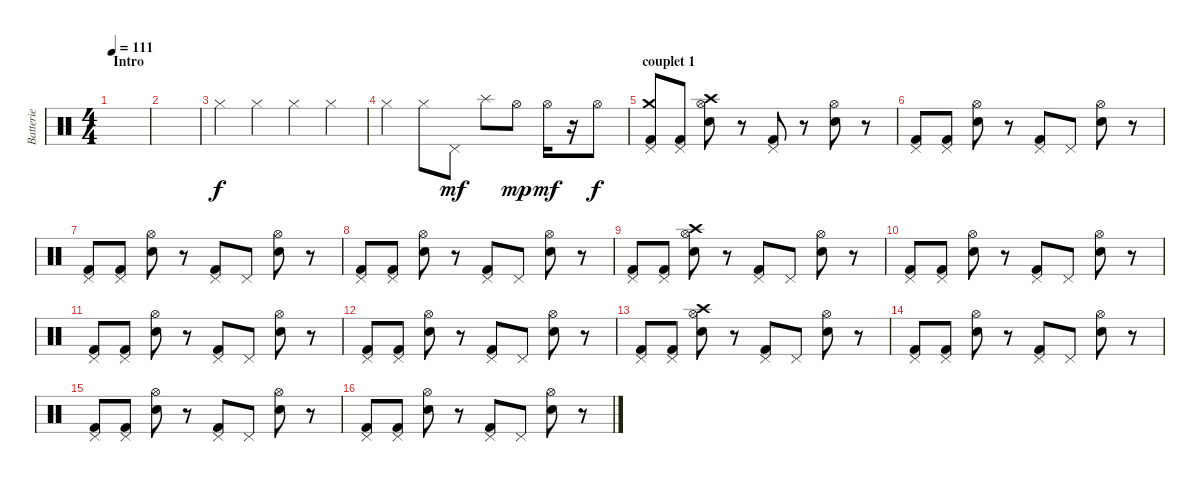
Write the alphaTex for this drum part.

\track ("Batterie" "Batterie") {instrument percussion}
\staff {score}
\articulation defaults
\ts (4 4)
\section ("" "Intro")
\tempo 111
\clef neutral
\ks c
|
|
"Hi-Hat (closed)".4{balance 0} "Hi-Hat (closed)".4 "Hi-Hat (closed)".4 "Hi-Hat (closed)".4 |
"Hi-Hat (closed)".4 "Hi-Hat (closed)".8 "Pedal Hi-Hat (hit)".8{dy mf balance 8} "Splash (hit)".8 "Hi-Hat (open)".8{dy mp} "Hi-Hat (open)".16{dy mf} r.16 "Hi-Hat (open)".8{dy f} |
\section ("" "couplet 1")
("Pedal Hi-Hat (hit)" "Crash medium (hit)" "Kick (hit) 2").8 ("Pedal Hi-Hat (hit)" "Kick (hit) 2").8 ("Hi-Hat (open)" "Crash high (hit)" "Electric Snare (hit)").8 r.8 ("Pedal Hi-Hat (hit)" "Kick (hit) 2").8 r.8 ("Hi-Hat (open)" "Electric Snare (hit)").8 r.8 |
("Pedal Hi-Hat (hit)" "Kick (hit) 2").8 ("Pedal Hi-Hat (hit)" "Kick (hit) 2").8 ("Hi-Hat (open)" "Electric Snare (hit)").8 r.8 ("Pedal Hi-Hat (hit)" "Kick (hit) 2").8 "Pedal Hi-Hat (hit)".8 ("Hi-Hat (open)" "Electric Snare (hit)").8 r.8 |
("Pedal Hi-Hat (hit)" "Kick (hit) 2").8 ("Pedal Hi-Hat (hit)" "Kick (hit) 2").8 ("Hi-Hat (open)" "Electric Snare (hit)").8 r.8 ("Pedal Hi-Hat (hit)" "Kick (hit) 2").8 "Pedal Hi-Hat (hit)".8 ("Hi-Hat (open)" "Electric Snare (hit)").8 r.8 |
("Pedal Hi-Hat (hit)" "Kick (hit) 2").8 ("Pedal Hi-Hat (hit)" "Kick (hit) 2").8 ("Hi-Hat (open)" "Electric Snare (hit)").8 r.8 ("Pedal Hi-Hat (hit)" "Kick (hit) 2").8 "Pedal Hi-Hat (hit)".8 ("Hi-Hat (open)" "Electric Snare (hit)").8 r.8 |
("Pedal Hi-Hat (hit)" "Kick (hit) 2").8 ("Pedal Hi-Hat (hit)" "Kick (hit) 2").8 ("Hi-Hat (open)" "Crash high (hit)" "Electric Snare (hit)").8 r.8 ("Pedal Hi-Hat (hit)" "Kick (hit) 2").8 "Pedal Hi-Hat (hit)".8 ("Hi-Hat (open)" "Electric Snare (hit)").8 r.8 |
("Pedal Hi-Hat (hit)" "Kick (hit) 2").8 ("Pedal Hi-Hat (hit)" "Kick (hit) 2").8 ("Hi-Hat (open)" "Electric Snare (hit)").8 r.8 ("Pedal Hi-Hat (hit)" "Kick (hit) 2").8 "Pedal Hi-Hat (hit)".8 ("Hi-Hat (open)" "Electric Snare (hit)").8 r.8 |
("Pedal Hi-Hat (hit)" "Kick (hit) 2").8 ("Pedal Hi-Hat (hit)" "Kick (hit) 2").8 ("Hi-Hat (open)" "Electric Snare (hit)").8 r.8 ("Pedal Hi-Hat (hit)" "Kick (hit) 2").8 "Pedal Hi-Hat (hit)".8 ("Hi-Hat (open)" "Electric Snare (hit)").8 r.8 |
("Pedal Hi-Hat (hit)" "Kick (hit) 2").8 ("Pedal Hi-Hat (hit)" "Kick (hit) 2").8 ("Hi-Hat (open)" "Electric Snare (hit)").8 r.8 ("Pedal Hi-Hat (hit)" "Kick (hit) 2").8 "Pedal Hi-Hat (hit)".8 ("Hi-Hat (open)" "Electric Snare (hit)").8 r.8 |
("Pedal Hi-Hat (hit)" "Kick (hit) 2").8 ("Pedal Hi-Hat (hit)" "Kick (hit) 2").8 ("Hi-Hat (open)" "Crash high (hit)" "Electric Snare (hit)").8 r.8 ("Pedal Hi-Hat (hit)" "Kick (hit) 2").8 "Pedal Hi-Hat (hit)".8 ("Hi-Hat (open)" "Electric Snare (hit)").8 r.8 |
("Pedal Hi-Hat (hit)" "Kick (hit) 2").8 ("Pedal Hi-Hat (hit)" "Kick (hit) 2").8 ("Hi-Hat (open)" "Electric Snare (hit)").8 r.8 ("Pedal Hi-Hat (hit)" "Kick (hit) 2").8 "Pedal Hi-Hat (hit)".8 ("Hi-Hat (open)" "Electric Snare (hit)").8 r.8 |
("Pedal Hi-Hat (hit)" "Kick (hit) 2").8 ("Pedal Hi-Hat (hit)" "Kick (hit) 2").8 ("Hi-Hat (open)" "Electric Snare (hit)").8 r.8 ("Pedal Hi-Hat (hit)" "Kick (hit) 2").8 "Pedal Hi-Hat (hit)".8 ("Hi-Hat (open)" "Electric Snare (hit)").8 r.8 |
("Pedal Hi-Hat (hit)" "Kick (hit) 2").8 ("Pedal Hi-Hat (hit)" "Kick (hit) 2").8 ("Hi-Hat (open)" "Electric Snare (hit)").8 r.8 ("Pedal Hi-Hat (hit)" "Kick (hit) 2").8 "Pedal Hi-Hat (hit)".8 ("Hi-Hat (open)" "Electric Snare (hit)").8 r.8
